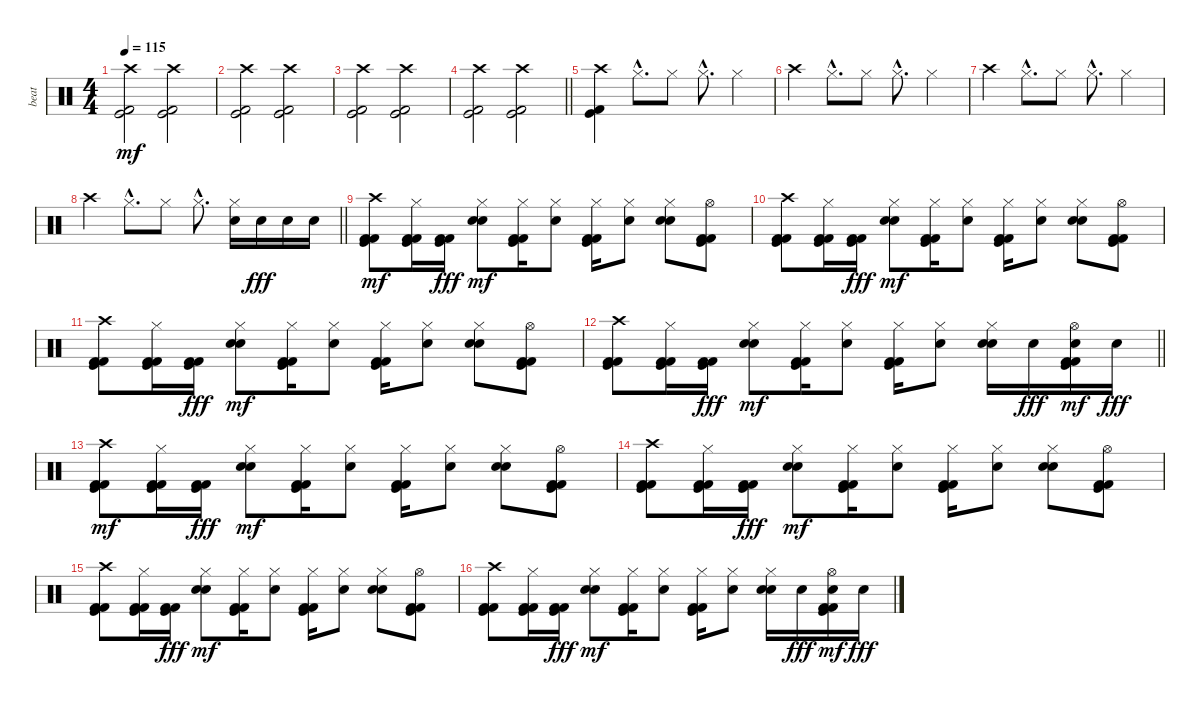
\track ("beat" "beat") {instrument percussion}
\staff {score}
\articulation defaults
\ts (4 4)
\tempo 115
\clef neutral
\ks c
("Kick (hit)" "Kick (hit) 2" "Crash high (hit)").2{dy mf} ("Kick (hit)" "Kick (hit) 2" "Crash high (hit)").2 |
("Kick (hit)" "Kick (hit) 2" "Crash high (hit)").2 ("Kick (hit)" "Kick (hit) 2" "Crash high (hit)").2 |
("Kick (hit)" "Kick (hit) 2" "Crash high (hit)").2 ("Kick (hit)" "Kick (hit) 2" "Crash high (hit)").2 |
\barLineRight lightlight
("Kick (hit)" "Kick (hit) 2" "Crash high (hit)").2 ("Kick (hit)" "Kick (hit) 2" "Crash high (hit)").2 |
("Kick (hit)" "Kick (hit) 2" "Crash high (hit)").4 "Hi-Hat (closed)"{hac}.8{d} "Hi-Hat (closed)".8 "Hi-Hat (closed)"{hac}.8{d} "Hi-Hat (closed)".4 |
"Crash high (hit)".4 "Hi-Hat (closed)"{hac}.8{d} "Hi-Hat (closed)".8 "Hi-Hat (closed)"{hac}.8{d} "Hi-Hat (closed)".4 |
"Crash high (hit)".4 "Hi-Hat (closed)"{hac}.8{d} "Hi-Hat (closed)".8 "Hi-Hat (closed)"{hac}.8{d} "Hi-Hat (closed)".4 |
\barLineRight lightlight "Crash high (hit)".4 "Hi-Hat (closed)"{hac}.8{d} "Hi-Hat (closed)".8 "Hi-Hat (closed)"{hac}.8{d}
("Electric Snare (hit)" "Hi-Hat (closed)").16 "Electric Snare (hit)".16{dy fff} "Electric Snare (hit)".16 "Electric Snare (hit)".16 |
("Kick (hit)" "Kick (hit) 2" "Kick (hit) 2" "Crash high (hit)").8{dy mf} ("Kick (hit)" "Kick (hit) 2" "Kick (hit) 2" "Hi-Hat (closed)").16 ("Kick (hit)" "Kick (hit) 2" "Kick (hit) 2").16{dy fff} ("Snare (hit) 2" "Electric Snare (hit)" "Hi-Hat (closed)").8{dy mf} ("Kick (hit)" "Kick (hit) 2" "Kick (hit) 2" "Hi-Hat (closed)").16 ("Electric Snare (hit)" "Hi-Hat (closed)").8 ("Kick (hit)" "Kick (hit) 2" "Kick (hit) 2" "Hi-Hat (closed)").16 ("Electric Snare (hit)" "Hi-Hat (closed)").8 ("Snare (hit) 2" "Electric Snare (hit)" "Hi-Hat (closed)").8 ("Kick (hit)" "Kick (hit) 2" "Kick (hit) 2" "Hi-Hat (open)").8 |
("Kick (hit)" "Kick (hit) 2" "Kick (hit) 2" "Crash high (hit)").8 ("Kick (hit)" "Kick (hit) 2" "Kick (hit) 2" "Hi-Hat (closed)").16 ("Kick (hit)" "Kick (hit) 2" "Kick (hit) 2").16{dy fff} ("Snare (hit) 2" "Electric Snare (hit)" "Hi-Hat (closed)").8{dy mf} ("Kick (hit)" "Kick (hit) 2" "Kick (hit) 2" "Hi-Hat (closed)").16 ("Electric Snare (hit)" "Hi-Hat (closed)").8 ("Kick (hit)" "Kick (hit) 2" "Kick (hit) 2" "Hi-Hat (closed)").16 ("Electric Snare (hit)" "Hi-Hat (closed)").8 ("Snare (hit) 2" "Electric Snare (hit)" "Hi-Hat (closed)").8 ("Kick (hit)" "Kick (hit) 2" "Kick (hit) 2" "Hi-Hat (open)").8 |
("Kick (hit)" "Kick (hit) 2" "Kick (hit) 2" "Crash high (hit)").8 ("Kick (hit)" "Kick (hit) 2" "Kick (hit) 2" "Hi-Hat (closed)").16 ("Kick (hit)" "Kick (hit) 2" "Kick (hit) 2").16{dy fff} ("Snare (hit) 2" "Electric Snare (hit)" "Hi-Hat (closed)").8{dy mf} ("Kick (hit)" "Kick (hit) 2" "Kick (hit) 2" "Hi-Hat (closed)").16 ("Electric Snare (hit)" "Hi-Hat (closed)").8 ("Kick (hit)" "Kick (hit) 2" "Kick (hit) 2" "Hi-Hat (closed)").16 ("Electric Snare (hit)" "Hi-Hat (closed)").8 ("Snare (hit) 2" "Electric Snare (hit)" "Hi-Hat (closed)").8 ("Kick (hit)" "Kick (hit) 2" "Kick (hit) 2" "Hi-Hat (open)").8 |
\barLineRight lightlight
("Kick (hit)" "Kick (hit) 2" "Kick (hit) 2" "Crash high (hit)").8 ("Kick (hit)" "Kick (hit) 2" "Kick (hit) 2" "Hi-Hat (closed)").16 ("Kick (hit)" "Kick (hit) 2" "Kick (hit) 2").16{dy fff} ("Snare (hit) 2" "Electric Snare (hit)" "Hi-Hat (closed)").8{dy mf} ("Kick (hit)" "Kick (hit) 2" "Kick (hit) 2" "Hi-Hat (closed)").16 ("Electric Snare (hit)" "Hi-Hat (closed)").8 ("Kick (hit)" "Kick (hit) 2" "Kick (hit) 2" "Hi-Hat (closed)").16 ("Electric Snare (hit)" "Hi-Hat (closed)").8 ("Snare (hit) 2" "Electric Snare (hit)" "Hi-Hat (closed)").16 "Electric Snare (hit)".16{dy fff} ("Kick (hit)" "Kick (hit) 2" "Kick (hit) 2" "Electric Snare (hit)" "Hi-Hat (open)").16{dy mf} "Electric Snare (hit)".16{dy fff} |
("Kick (hit)" "Kick (hit) 2" "Kick (hit) 2" "Crash high (hit)").8{dy mf} ("Kick (hit)" "Kick (hit) 2" "Kick (hit) 2" "Hi-Hat (closed)").16 ("Kick (hit)" "Kick (hit) 2" "Kick (hit) 2").16{dy fff} ("Snare (hit) 2" "Electric Snare (hit)" "Hi-Hat (closed)").8{dy mf} ("Kick (hit)" "Kick (hit) 2" "Kick (hit) 2" "Hi-Hat (closed)").16 ("Electric Snare (hit)" "Hi-Hat (closed)").8 ("Kick (hit)" "Kick (hit) 2" "Kick (hit) 2" "Hi-Hat (closed)").16 ("Electric Snare (hit)" "Hi-Hat (closed)").8 ("Snare (hit) 2" "Electric Snare (hit)" "Hi-Hat (closed)").8 ("Kick (hit)" "Kick (hit) 2" "Kick (hit) 2" "Hi-Hat (open)").8 |
("Kick (hit)" "Kick (hit) 2" "Kick (hit) 2" "Crash high (hit)").8 ("Kick (hit)" "Kick (hit) 2" "Kick (hit) 2" "Hi-Hat (closed)").16 ("Kick (hit)" "Kick (hit) 2" "Kick (hit) 2").16{dy fff} ("Snare (hit) 2" "Electric Snare (hit)" "Hi-Hat (closed)").8{dy mf} ("Kick (hit)" "Kick (hit) 2" "Kick (hit) 2" "Hi-Hat (closed)").16 ("Electric Snare (hit)" "Hi-Hat (closed)").8 ("Kick (hit)" "Kick (hit) 2" "Kick (hit) 2" "Hi-Hat (closed)").16 ("Electric Snare (hit)" "Hi-Hat (closed)").8 ("Snare (hit) 2" "Electric Snare (hit)" "Hi-Hat (closed)").8 ("Kick (hit)" "Kick (hit) 2" "Kick (hit) 2" "Hi-Hat (open)").8 |
("Kick (hit)" "Kick (hit) 2" "Kick (hit) 2" "Crash high (hit)").8 ("Kick (hit)" "Kick (hit) 2" "Kick (hit) 2" "Hi-Hat (closed)").16 ("Kick (hit)" "Kick (hit) 2" "Kick (hit) 2").16{dy fff} ("Snare (hit) 2" "Electric Snare (hit)" "Hi-Hat (closed)").8{dy mf} ("Kick (hit)" "Kick (hit) 2" "Kick (hit) 2" "Hi-Hat (closed)").16 ("Electric Snare (hit)" "Hi-Hat (closed)").8 ("Kick (hit)" "Kick (hit) 2" "Kick (hit) 2" "Hi-Hat (closed)").16 ("Electric Snare (hit)" "Hi-Hat (closed)").8 ("Snare (hit) 2" "Electric Snare (hit)" "Hi-Hat (closed)").8 ("Kick (hit)" "Kick (hit) 2" "Kick (hit) 2" "Hi-Hat (open)").8 |
("Kick (hit)" "Kick (hit) 2" "Kick (hit) 2" "Crash high (hit)").8 ("Kick (hit)" "Kick (hit) 2" "Kick (hit) 2" "Hi-Hat (closed)").16 ("Kick (hit)" "Kick (hit) 2" "Kick (hit) 2").16{dy fff} ("Snare (hit) 2" "Electric Snare (hit)" "Hi-Hat (closed)").8{dy mf} ("Kick (hit)" "Kick (hit) 2" "Kick (hit) 2" "Hi-Hat (closed)").16 ("Electric Snare (hit)" "Hi-Hat (closed)").8 ("Kick (hit)" "Kick (hit) 2" "Kick (hit) 2" "Hi-Hat (closed)").16 ("Electric Snare (hit)" "Hi-Hat (closed)").8 ("Snare (hit) 2" "Electric Snare (hit)" "Hi-Hat (closed)").16 "Electric Snare (hit)".16{dy fff} ("Kick (hit)" "Kick (hit) 2" "Kick (hit) 2" "Electric Snare (hit)" "Hi-Hat (open)").16{dy mf} "Electric Snare (hit)".16{dy fff}
